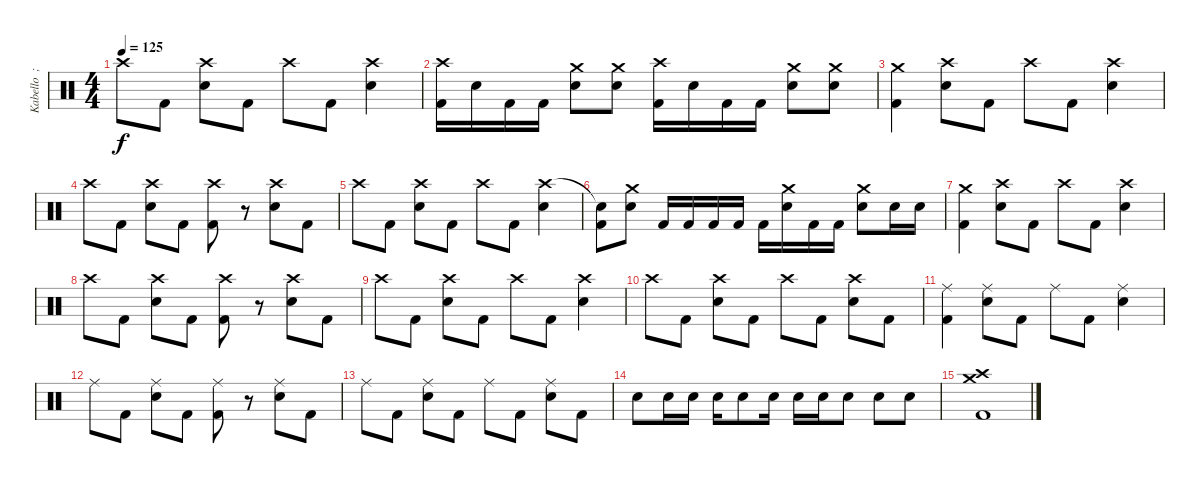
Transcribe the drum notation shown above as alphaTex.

\track ("Kabello  ;-)" "Kabello  ;") {instrument percussion}
\staff {score}
\articulation defaults
\ts (4 4)
\tempo 125
\clef neutral
\ks c "Crash high (hit)".8{dy f} "Kick (hit) 2".8
("Crash high (hit)" "Electric Snare (hit)").8 "Kick (hit) 2".8 "Crash high (hit)".8 "Kick (hit) 2".8 ("Crash high (hit)" "Electric Snare (hit)").4 |
("Crash high (hit)" "Kick (hit) 2").16 "Electric Snare (hit)".16 "Kick (hit) 2".16 "Kick (hit) 2".16 ("Crash medium (hit)" "Electric Snare (hit)").8 ("Crash medium (hit)" "Electric Snare (hit)").8 ("Crash high (hit)" "Kick (hit) 2").16 "Electric Snare (hit)".16 "Kick (hit) 2".16 "Kick (hit) 2".16 ("Crash medium (hit)" "Electric Snare (hit)").8 ("Crash medium (hit)" "Electric Snare (hit)").8 |
("Crash medium (hit)" "Kick (hit) 2").4 ("Crash high (hit)" "Electric Snare (hit)").8 "Kick (hit) 2".8 "Crash high (hit)".8 "Kick (hit) 2".8 ("Crash high (hit)" "Electric Snare (hit)").4 |
"Crash high (hit)".8 "Kick (hit) 2".8 ("Crash high (hit)" "Electric Snare (hit)").8 "Kick (hit) 2".8 ("Crash high (hit)" "Kick (hit) 2").8 r.8 ("Crash high (hit)" "Electric Snare (hit)").8 "Kick (hit) 2".8 |
"Crash high (hit)".8 "Kick (hit) 2".8 ("Crash high (hit)" "Electric Snare (hit)").8 "Kick (hit) 2".8 "Crash high (hit)".8 "Kick (hit) 2".8 ("Crash high (hit)" "Electric Snare (hit)").4 |
("Snare (hit)"{t} "Kick (hit) 2").8 ("Crash medium (hit)" "Electric Snare (hit)").8 "Kick (hit) 2".16 "Kick (hit) 2".16 "Kick (hit) 2".16 "Kick (hit) 2".16 "Kick (hit) 2".16 ("Crash medium (hit)" "Electric Snare (hit)").16 "Kick (hit) 2".16 "Kick (hit) 2".16 ("Crash medium (hit)" "Electric Snare (hit)").8 "Electric Snare (hit)".16 "Electric Snare (hit)".16 |
("Crash medium (hit)" "Kick (hit) 2").4 ("Crash high (hit)" "Electric Snare (hit)").8 "Kick (hit) 2".8 "Crash high (hit)".8 "Kick (hit) 2".8 ("Crash high (hit)" "Electric Snare (hit)").4 |
"Crash high (hit)".8 "Kick (hit) 2".8 ("Crash high (hit)" "Electric Snare (hit)").8 "Kick (hit) 2".8 ("Crash high (hit)" "Kick (hit) 2").8 r.8 ("Crash high (hit)" "Electric Snare (hit)").8 "Kick (hit) 2".8 |
"Crash high (hit)".8 "Kick (hit) 2".8 ("Crash high (hit)" "Electric Snare (hit)").8 "Kick (hit) 2".8 "Crash high (hit)".8 "Kick (hit) 2".8 ("Crash high (hit)" "Electric Snare (hit)").4 |
"Crash high (hit)".8 "Kick (hit) 2".8 ("Crash high (hit)" "Electric Snare (hit)").8 "Kick (hit) 2".8 "Crash high (hit)".8 "Kick (hit) 2".8 ("Crash high (hit)" "Electric Snare (hit)").8 "Kick (hit) 2".8 |
("Ride (middle)" "Kick (hit) 2").4 ("Ride (middle)" "Electric Snare (hit)").8 "Kick (hit) 2".8 "Ride (middle)".8 "Kick (hit) 2".8 ("Ride (middle)" "Electric Snare (hit)").4 |
"Ride (middle)".8 "Kick (hit) 2".8 ("Ride (middle)" "Electric Snare (hit)").8 "Kick (hit) 2".8 ("Ride (middle)" "Kick (hit) 2").8 r.8 ("Ride (middle)" "Electric Snare (hit)").8 "Kick (hit) 2".8 |
"Ride (middle)".8 "Kick (hit) 2".8 ("Ride (middle)" "Electric Snare (hit)").8 "Kick (hit) 2".8 "Ride (middle)".8 "Kick (hit) 2".8 ("Ride (middle)" "Electric Snare (hit)").8 "Kick (hit) 2".8 |
"Electric Snare (hit)".8 "Electric Snare (hit)".16 "Electric Snare (hit)".16 "Electric Snare (hit)".16 "Electric Snare (hit)".8 "Electric Snare (hit)".16 "Electric Snare (hit)".16 "Electric Snare (hit)".16 "Electric Snare (hit)".8 "Electric Snare (hit)".8 "Electric Snare (hit)".8 |
("Crash medium (hit)" "Crash high (hit)" "Kick (hit) 2").1
